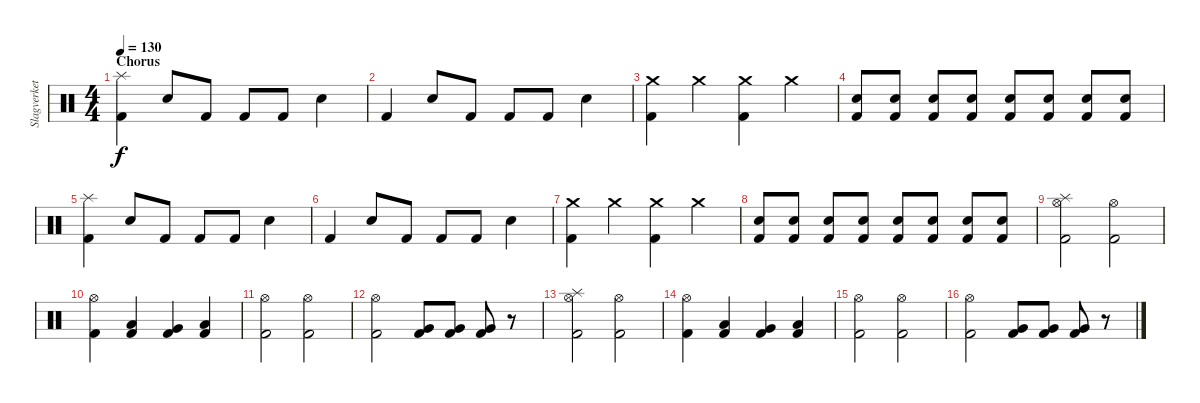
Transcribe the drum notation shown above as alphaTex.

\track ("Slagverket !!" "Slagverket") {instrument percussion}
\staff {score}
\articulation defaults
\ts (4 4)
\section ("" "Chorus")
\tempo 130
\clef neutral
\ks c
("Splash (hit)" "Kick (hit) 2").4{dy f} "Snare (hit) 2".8 "Kick (hit) 2".8 "Kick (hit) 2".8 "Kick (hit) 2".8 "Snare (hit) 2".4 |
"Kick (hit) 2".4 "Snare (hit) 2".8 "Kick (hit) 2".8 "Kick (hit) 2".8 "Kick (hit) 2".8 "Snare (hit) 2".4 |
("Crash medium (hit)" "Kick (hit) 2").4 "Crash medium (hit)".4 ("Crash medium (hit)" "Kick (hit) 2").4 "Crash medium (hit)".4 |
("Snare (hit) 2" "Kick (hit) 2").8 ("Snare (hit) 2" "Kick (hit) 2").8 ("Snare (hit) 2" "Kick (hit) 2").8 ("Snare (hit) 2" "Kick (hit) 2").8 ("Snare (hit) 2" "Kick (hit) 2").8 ("Snare (hit) 2" "Kick (hit) 2").8 ("Snare (hit) 2" "Kick (hit) 2").8 ("Snare (hit) 2" "Kick (hit) 2").8 |
("Splash (hit)" "Kick (hit) 2").4 "Snare (hit) 2".8 "Kick (hit) 2".8 "Kick (hit) 2".8 "Kick (hit) 2".8 "Snare (hit) 2".4 |
"Kick (hit) 2".4 "Snare (hit) 2".8 "Kick (hit) 2".8 "Kick (hit) 2".8 "Kick (hit) 2".8 "Snare (hit) 2".4 |
("Crash medium (hit)" "Kick (hit) 2").4 "Crash medium (hit)".4 ("Crash medium (hit)" "Kick (hit) 2").4 "Crash medium (hit)".4 |
("Snare (hit) 2" "Kick (hit) 2").8 ("Snare (hit) 2" "Kick (hit) 2").8 ("Snare (hit) 2" "Kick (hit) 2").8 ("Snare (hit) 2" "Kick (hit) 2").8 ("Snare (hit) 2" "Kick (hit) 2").8 ("Snare (hit) 2" "Kick (hit) 2").8 ("Snare (hit) 2" "Kick (hit) 2").8 ("Snare (hit) 2" "Kick (hit) 2").8 |
\section ("" "")
("Hi-Hat (open)" "Splash (hit)" "Kick (hit) 2").2 ("Hi-Hat (open)" "Kick (hit) 2").2 |
("Hi-Hat (open)" "Kick (hit) 2").4 ("Low Tom (hit)" "Kick (hit) 2").4 ("Very Low Tom (hit)" "Kick (hit) 2").4 ("Low Floor Tom (hit)" "Kick (hit) 2").4 |
("Hi-Hat (open)" "Kick (hit) 2").2 ("Hi-Hat (open)" "Kick (hit) 2").2 |
("Hi-Hat (open)" "Kick (hit) 2").2 ("Very Low Tom (hit)" "Kick (hit) 2").8 ("Very Low Tom (hit)" "Kick (hit) 2").8 ("Very Low Tom (hit)" "Kick (hit) 2").8 r.8 |
("Hi-Hat (open)" "Splash (hit)" "Kick (hit) 2").2 ("Hi-Hat (open)" "Kick (hit) 2").2 |
("Hi-Hat (open)" "Kick (hit) 2").4 ("Low Tom (hit)" "Kick (hit) 2").4 ("Very Low Tom (hit)" "Kick (hit) 2").4 ("Low Floor Tom (hit)" "Kick (hit) 2").4 |
("Hi-Hat (open)" "Kick (hit) 2").2 ("Hi-Hat (open)" "Kick (hit) 2").2 |
("Hi-Hat (open)" "Kick (hit) 2").2 ("Very Low Tom (hit)" "Kick (hit) 2").8 ("Very Low Tom (hit)" "Kick (hit) 2").8 ("Very Low Tom (hit)" "Kick (hit) 2").8 r.8
